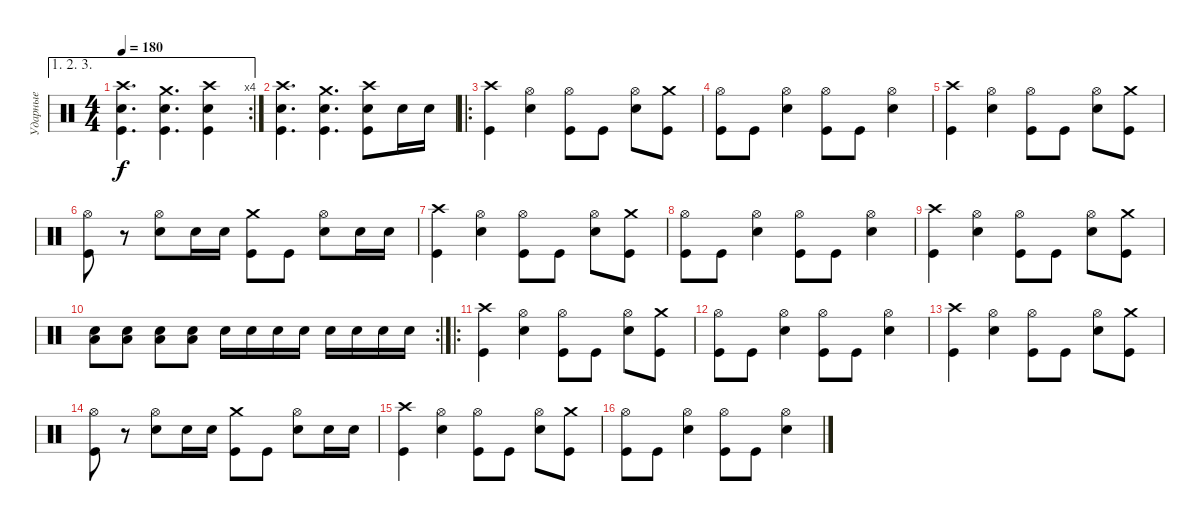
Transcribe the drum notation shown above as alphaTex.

\track ("Ударные" "Ударные") {instrument percussion}
\staff {score}
\articulation defaults
\ae (1 2 3)
\rc 4
\ts (4 4)
\tempo 180
\clef neutral
\ks c
("Crash high (hit)" "Electric Snare (hit)" "Kick (hit)").4{d dy f} ("Crash medium (hit)" "Electric Snare (hit)" "Kick (hit)").4{d} ("Crash high (hit)" "Electric Snare (hit)" "Kick (hit)").4 |
("Crash high (hit)" "Electric Snare (hit)" "Kick (hit)").4{d} ("Crash medium (hit)" "Electric Snare (hit)" "Kick (hit)").4{d} ("Crash high (hit)" "Electric Snare (hit)" "Kick (hit)").8 "Electric Snare (hit)".16 "Electric Snare (hit)".16 |
\ro
("Crash high (hit)" "Kick (hit)").4 ("Hi-Hat (open)" "Electric Snare (hit)").4 ("Hi-Hat (open)" "Kick (hit)").8 "Kick (hit)".8 ("Hi-Hat (open)" "Electric Snare (hit)").8 ("Crash medium (hit)" "Kick (hit)").8 |
("Hi-Hat (open)" "Kick (hit)").8 "Kick (hit)".8 ("Hi-Hat (open)" "Electric Snare (hit)").4 ("Hi-Hat (open)" "Kick (hit)").8 "Kick (hit)".8 ("Hi-Hat (open)" "Electric Snare (hit)").4 |
("Crash high (hit)" "Kick (hit)").4 ("Hi-Hat (open)" "Electric Snare (hit)").4 ("Hi-Hat (open)" "Kick (hit)").8 "Kick (hit)".8 ("Hi-Hat (open)" "Electric Snare (hit)").8 ("Crash medium (hit)" "Kick (hit)").8 |
("Hi-Hat (open)" "Kick (hit)").8 r.8 ("Hi-Hat (open)" "Electric Snare (hit)").8 "Electric Snare (hit)".16 "Electric Snare (hit)".16 ("Crash medium (hit)" "Kick (hit)").8 "Kick (hit)".8 ("Hi-Hat (open)" "Electric Snare (hit)").8 "Electric Snare (hit)".16 "Electric Snare (hit)".16 |
("Crash high (hit)" "Kick (hit)").4 ("Hi-Hat (open)" "Electric Snare (hit)").4 ("Hi-Hat (open)" "Kick (hit)").8 "Kick (hit)".8 ("Hi-Hat (open)" "Electric Snare (hit)").8 ("Crash medium (hit)" "Kick (hit)").8 |
("Hi-Hat (open)" "Kick (hit)").8 "Kick (hit)".8 ("Hi-Hat (open)" "Electric Snare (hit)").4 ("Hi-Hat (open)" "Kick (hit)").8 "Kick (hit)".8 ("Hi-Hat (open)" "Electric Snare (hit)").4 |
("Crash high (hit)" "Kick (hit)").4 ("Hi-Hat (open)" "Electric Snare (hit)").4 ("Hi-Hat (open)" "Kick (hit)").8 "Kick (hit)".8 ("Hi-Hat (open)" "Electric Snare (hit)").8 ("Crash medium (hit)" "Kick (hit)").8 |
\rc 2
("Low Floor Tom (hit)" "Electric Snare (hit)").8 ("Low Floor Tom (hit)" "Electric Snare (hit)").8 ("Low Floor Tom (hit)" "Electric Snare (hit)").8 ("Low Floor Tom (hit)" "Electric Snare (hit)").8 "Electric Snare (hit)".16 "Electric Snare (hit)".16 "Electric Snare (hit)".16 "Electric Snare (hit)".16 "Electric Snare (hit)".16 "Electric Snare (hit)".16 "Electric Snare (hit)".16 "Electric Snare (hit)".16 |
\ro
("Crash high (hit)" "Kick (hit)").4 ("Hi-Hat (open)" "Electric Snare (hit)").4 ("Hi-Hat (open)" "Kick (hit)").8 "Kick (hit)".8 ("Hi-Hat (open)" "Electric Snare (hit)").8 ("Crash medium (hit)" "Kick (hit)").8 |
("Hi-Hat (open)" "Kick (hit)").8 "Kick (hit)".8 ("Hi-Hat (open)" "Electric Snare (hit)").4 ("Hi-Hat (open)" "Kick (hit)").8 "Kick (hit)".8 ("Hi-Hat (open)" "Electric Snare (hit)").4 |
("Crash high (hit)" "Kick (hit)").4 ("Hi-Hat (open)" "Electric Snare (hit)").4 ("Hi-Hat (open)" "Kick (hit)").8 "Kick (hit)".8 ("Hi-Hat (open)" "Electric Snare (hit)").8 ("Crash medium (hit)" "Kick (hit)").8 |
("Hi-Hat (open)" "Kick (hit)").8 r.8 ("Hi-Hat (open)" "Electric Snare (hit)").8 "Electric Snare (hit)".16 "Electric Snare (hit)".16 ("Crash medium (hit)" "Kick (hit)").8 "Kick (hit)".8 ("Hi-Hat (open)" "Electric Snare (hit)").8 "Electric Snare (hit)".16 "Electric Snare (hit)".16 |
("Crash high (hit)" "Kick (hit)").4 ("Hi-Hat (open)" "Electric Snare (hit)").4 ("Hi-Hat (open)" "Kick (hit)").8 "Kick (hit)".8 ("Hi-Hat (open)" "Electric Snare (hit)").8 ("Crash medium (hit)" "Kick (hit)").8 |
("Hi-Hat (open)" "Kick (hit)").8 "Kick (hit)".8 ("Hi-Hat (open)" "Electric Snare (hit)").4 ("Hi-Hat (open)" "Kick (hit)").8 "Kick (hit)".8 ("Hi-Hat (open)" "Electric Snare (hit)").4
